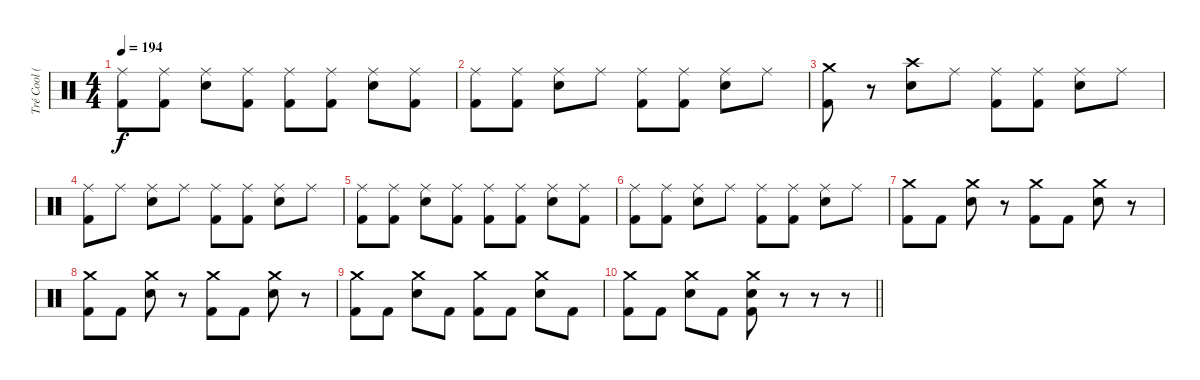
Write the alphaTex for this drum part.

\track ("Tré Cool (Drums)" "Tré Cool (") {instrument percussion}
\staff {score}
\articulation defaults
\ts (4 4)
\tempo 194
\clef neutral
\ks c
("Kick (hit) 2" "Ride (middle)").8{dy f} ("Kick (hit) 2" "Ride (middle)").8 ("Snare (hit) 2" "Ride (middle)").8 ("Kick (hit) 2" "Ride (middle)").8 ("Kick (hit) 2" "Ride (middle)").8 ("Kick (hit) 2" "Ride (middle)").8 ("Snare (hit) 2" "Ride (middle)").8 ("Kick (hit) 2" "Ride (middle)").8 |
("Kick (hit) 2" "Ride (middle)").8 ("Kick (hit) 2" "Ride (middle)").8 ("Snare (hit) 2" "Ride (middle)").8 "Ride (middle)".8 ("Kick (hit) 2" "Ride (middle)").8 ("Kick (hit) 2" "Ride (middle)").8 ("Snare (hit) 2" "Ride (middle)").8 "Ride (middle)".8 |
("Kick (hit) 2" "Crash medium (hit)").8 r.8 ("Snare (hit) 2" "Crash high (hit)").8 "Ride (middle)".8 ("Kick (hit) 2" "Ride (middle)").8 ("Kick (hit) 2" "Ride (middle)").8 ("Snare (hit) 2" "Ride (middle)").8 "Ride (middle)".8 |
("Kick (hit) 2" "Ride (middle)").8 "Ride (middle)".8 ("Snare (hit) 2" "Ride (middle)").8 "Ride (middle)".8 ("Kick (hit) 2" "Ride (middle)").8 ("Kick (hit) 2" "Ride (middle)").8 ("Snare (hit) 2" "Ride (middle)").8 "Ride (middle)".8 |
("Kick (hit) 2" "Ride (middle)").8 ("Kick (hit) 2" "Ride (middle)").8 ("Snare (hit) 2" "Ride (middle)").8 ("Kick (hit) 2" "Ride (middle)").8 ("Kick (hit) 2" "Ride (middle)").8 ("Kick (hit) 2" "Ride (middle)").8 ("Snare (hit) 2" "Ride (middle)").8 ("Kick (hit) 2" "Ride (middle)").8 |
("Kick (hit) 2" "Ride (middle)").8 ("Kick (hit) 2" "Ride (middle)").8 ("Snare (hit) 2" "Ride (middle)").8 "Ride (middle)".8 ("Kick (hit) 2" "Ride (middle)").8 ("Kick (hit) 2" "Ride (middle)").8 ("Snare (hit) 2" "Ride (middle)").8 "Ride (middle)".8 |
("Kick (hit) 2" "Crash medium (hit)").8 "Kick (hit) 2".8 ("Snare (hit) 2" "Crash medium (hit)").8 r.8 ("Kick (hit) 2" "Crash medium (hit)").8 "Kick (hit) 2".8 ("Snare (hit) 2" "Crash medium (hit)").8 r.8 |
("Kick (hit) 2" "Crash medium (hit)").8 "Kick (hit) 2".8 ("Snare (hit) 2" "Crash medium (hit)").8 r.8 ("Kick (hit) 2" "Crash medium (hit)").8 "Kick (hit) 2".8 ("Snare (hit) 2" "Crash medium (hit)").8 r.8 |
("Kick (hit) 2" "Crash medium (hit)").8 "Kick (hit) 2".8 ("Snare (hit) 2" "Crash medium (hit)").8 "Kick (hit) 2".8 ("Kick (hit) 2" "Crash medium (hit)").8 "Kick (hit) 2".8 ("Snare (hit) 2" "Crash medium (hit)").8 "Kick (hit) 2".8 |
\barLineRight lightlight
("Kick (hit) 2" "Crash medium (hit)").8 "Kick (hit) 2".8 ("Snare (hit) 2" "Crash medium (hit)").8 "Kick (hit) 2".8 ("Kick (hit) 2" "Snare (hit) 2" "Crash medium (hit)").8 r.8 r.8 r.8
